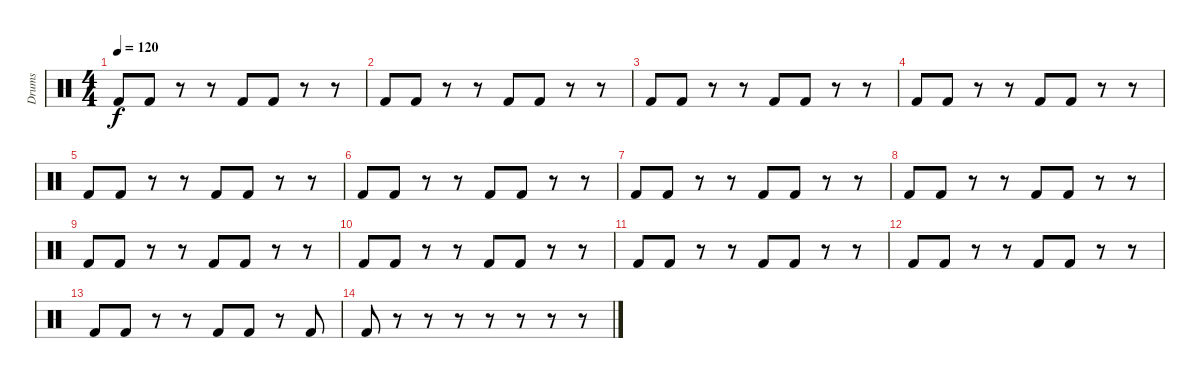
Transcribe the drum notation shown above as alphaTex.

\track ("Drums" "Drums") {instrument percussion}
\staff {score}
\articulation defaults
\ts (4 4)
\tempo 120
\clef neutral
\ks c "Kick (hit) 2".8{dy f} "Kick (hit) 2".8
r.8 r.8 "Kick (hit) 2".8 "Kick (hit) 2".8 r.8 r.8 |
"Kick (hit) 2".8 "Kick (hit) 2".8 r.8 r.8 "Kick (hit) 2".8 "Kick (hit) 2".8 r.8 r.8 |
"Kick (hit) 2".8 "Kick (hit) 2".8 r.8 r.8 "Kick (hit) 2".8 "Kick (hit) 2".8 r.8 r.8 |
"Kick (hit) 2".8 "Kick (hit) 2".8 r.8 r.8 "Kick (hit) 2".8 "Kick (hit) 2".8 r.8 r.8 |
"Kick (hit) 2".8 "Kick (hit) 2".8 r.8 r.8 "Kick (hit) 2".8 "Kick (hit) 2".8 r.8 r.8 |
"Kick (hit) 2".8 "Kick (hit) 2".8 r.8 r.8 "Kick (hit) 2".8 "Kick (hit) 2".8 r.8 r.8 |
"Kick (hit) 2".8 "Kick (hit) 2".8 r.8 r.8 "Kick (hit) 2".8 "Kick (hit) 2".8 r.8 r.8 |
"Kick (hit) 2".8 "Kick (hit) 2".8 r.8 r.8 "Kick (hit) 2".8 "Kick (hit) 2".8 r.8 r.8 |
"Kick (hit) 2".8 "Kick (hit) 2".8 r.8 r.8 "Kick (hit) 2".8 "Kick (hit) 2".8 r.8 r.8 |
"Kick (hit) 2".8 "Kick (hit) 2".8 r.8 r.8 "Kick (hit) 2".8 "Kick (hit) 2".8 r.8 r.8 |
"Kick (hit) 2".8 "Kick (hit) 2".8 r.8 r.8 "Kick (hit) 2".8 "Kick (hit) 2".8 r.8 r.8 |
"Kick (hit) 2".8 "Kick (hit) 2".8 r.8 r.8 "Kick (hit) 2".8 "Kick (hit) 2".8 r.8 r.8 |
"Kick (hit) 2".8 "Kick (hit) 2".8 r.8 r.8 "Kick (hit) 2".8 "Kick (hit) 2".8 r.8 "Kick (hit) 2".8 |
"Kick (hit) 2".8 r.8 r.8 r.8 r.8 r.8 r.8 r.8
